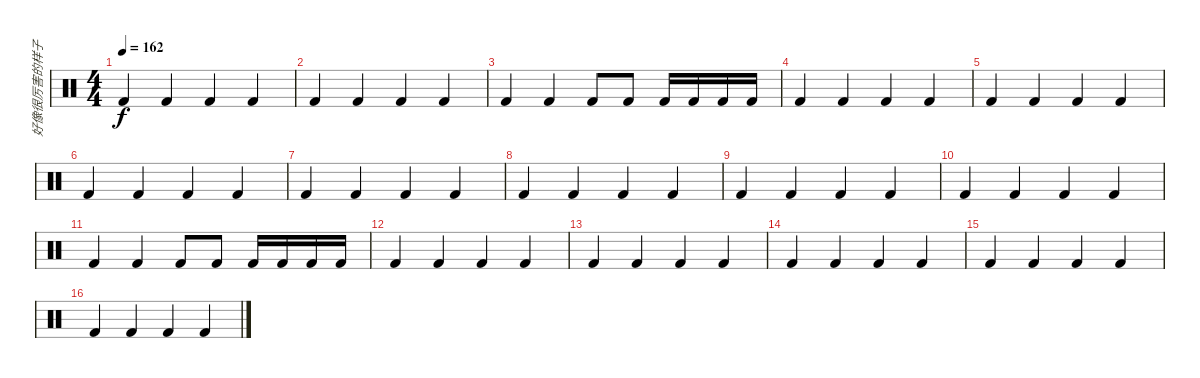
\track ("好像很厉害的样子" "好像很厉害的样子") {instrument percussion}
\staff {score}
\articulation defaults
\ts (4 4)
\tempo 162
\clef neutral
\ks c "Kick (hit) 2".4{dy f} "Kick (hit) 2".4 "Kick (hit) 2".4 "Kick (hit) 2".4
|
"Kick (hit) 2".4 "Kick (hit) 2".4 "Kick (hit) 2".4 "Kick (hit) 2".4 |
"Kick (hit) 2".4 "Kick (hit) 2".4 "Kick (hit) 2".8 "Kick (hit) 2".8 "Kick (hit) 2".16 "Kick (hit) 2".16 "Kick (hit) 2".16 "Kick (hit) 2".16 |
"Kick (hit) 2".4 "Kick (hit) 2".4 "Kick (hit) 2".4 "Kick (hit) 2".4 |
"Kick (hit) 2".4 "Kick (hit) 2".4 "Kick (hit) 2".4 "Kick (hit) 2".4 |
"Kick (hit) 2".4 "Kick (hit) 2".4 "Kick (hit) 2".4 "Kick (hit) 2".4 |
"Kick (hit) 2".4 "Kick (hit) 2".4 "Kick (hit) 2".4 "Kick (hit) 2".4 |
"Kick (hit) 2".4 "Kick (hit) 2".4 "Kick (hit) 2".4 "Kick (hit) 2".4 |
"Kick (hit) 2".4 "Kick (hit) 2".4 "Kick (hit) 2".4 "Kick (hit) 2".4 |
"Kick (hit) 2".4 "Kick (hit) 2".4 "Kick (hit) 2".4 "Kick (hit) 2".4 |
"Kick (hit) 2".4 "Kick (hit) 2".4 "Kick (hit) 2".8 "Kick (hit) 2".8 "Kick (hit) 2".16 "Kick (hit) 2".16 "Kick (hit) 2".16 "Kick (hit) 2".16 |
"Kick (hit) 2".4 "Kick (hit) 2".4 "Kick (hit) 2".4 "Kick (hit) 2".4 |
"Kick (hit) 2".4 "Kick (hit) 2".4 "Kick (hit) 2".4 "Kick (hit) 2".4 |
"Kick (hit) 2".4 "Kick (hit) 2".4 "Kick (hit) 2".4 "Kick (hit) 2".4 |
"Kick (hit) 2".4 "Kick (hit) 2".4 "Kick (hit) 2".4 "Kick (hit) 2".4 |
"Kick (hit) 2".4 "Kick (hit) 2".4 "Kick (hit) 2".4 "Kick (hit) 2".4
